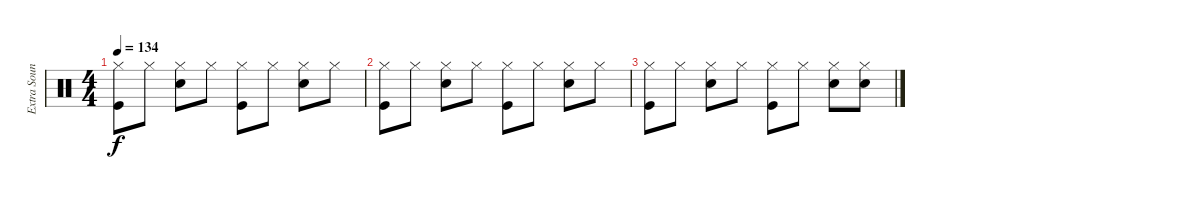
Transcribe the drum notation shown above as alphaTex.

\track ("Extra Sounds" "Extra Soun") {instrument percussion}
\staff {score}
\articulation defaults
\ts (4 4)
\tempo 134
\clef neutral
\ks c
("Hi-Hat (closed)" "Kick (hit)").8{dy f} "Hi-Hat (closed)".8 ("Hi-Hat (closed)" "Snare (hit) 2").8 "Hi-Hat (closed)".8 ("Hi-Hat (closed)" "Kick (hit)").8 "Hi-Hat (closed)".8 ("Hi-Hat (closed)" "Snare (hit) 2").8 "Hi-Hat (closed)".8 |
("Hi-Hat (closed)" "Kick (hit)").8 "Hi-Hat (closed)".8 ("Hi-Hat (closed)" "Snare (hit) 2").8 "Hi-Hat (closed)".8 ("Hi-Hat (closed)" "Kick (hit)").8 "Hi-Hat (closed)".8 ("Hi-Hat (closed)" "Snare (hit) 2").8 "Hi-Hat (closed)".8 |
("Hi-Hat (closed)" "Kick (hit)").8 "Hi-Hat (closed)".8 ("Hi-Hat (closed)" "Snare (hit) 2").8 "Hi-Hat (closed)".8 ("Hi-Hat (closed)" "Kick (hit)").8 "Hi-Hat (closed)".8 ("Hi-Hat (closed)" "Snare (hit) 2").8 ("Hi-Hat (closed)" "Snare (hit) 2").8
